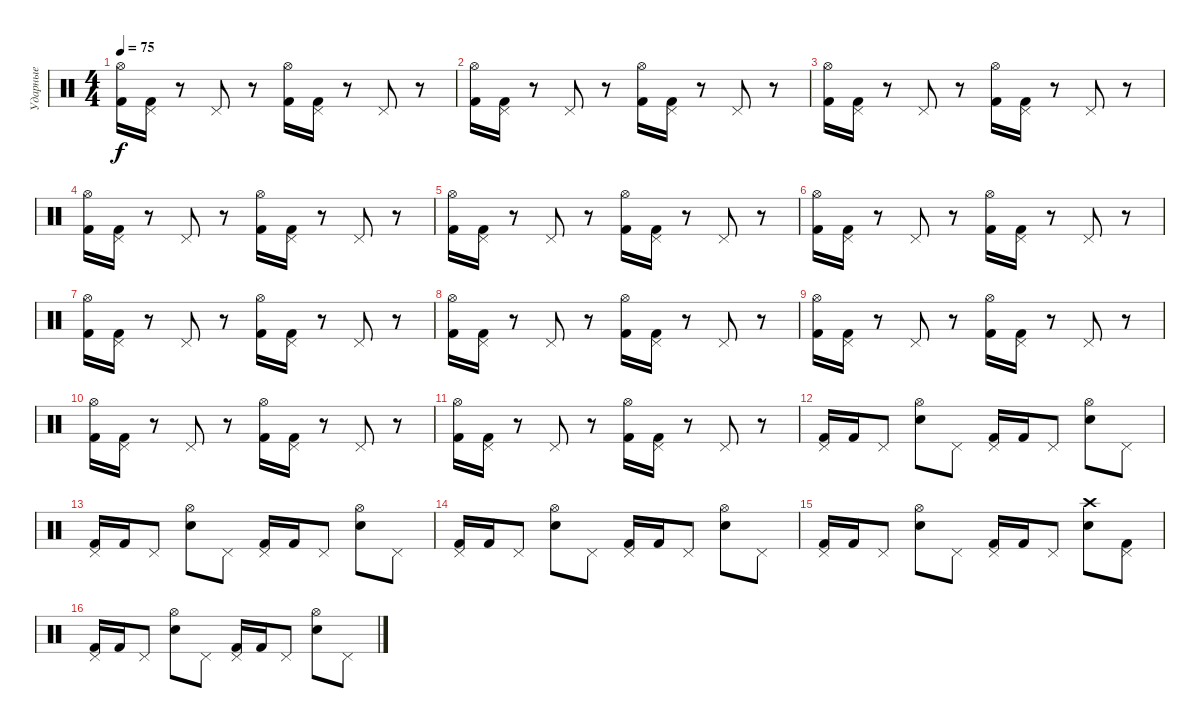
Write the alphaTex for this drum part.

\track ("Ударные" "Ударные") {instrument percussion}
\staff {score}
\articulation defaults
\ts (4 4)
\tempo 75
\clef neutral
\ks c
("Hi-Hat (open)" "Kick (hit) 2").16{dy f} ("Pedal Hi-Hat (hit)" "Kick (hit) 2").16 r.8 "Pedal Hi-Hat (hit)".8 r.8 ("Hi-Hat (open)" "Kick (hit) 2").16 ("Pedal Hi-Hat (hit)" "Kick (hit) 2").16 r.8 "Pedal Hi-Hat (hit)".8 r.8 |
("Hi-Hat (open)" "Kick (hit) 2").16 ("Pedal Hi-Hat (hit)" "Kick (hit) 2").16 r.8 "Pedal Hi-Hat (hit)".8 r.8 ("Hi-Hat (open)" "Kick (hit) 2").16 ("Pedal Hi-Hat (hit)" "Kick (hit) 2").16 r.8 "Pedal Hi-Hat (hit)".8 r.8 |
("Hi-Hat (open)" "Kick (hit) 2").16 ("Pedal Hi-Hat (hit)" "Kick (hit) 2").16 r.8 "Pedal Hi-Hat (hit)".8 r.8 ("Hi-Hat (open)" "Kick (hit) 2").16 ("Pedal Hi-Hat (hit)" "Kick (hit) 2").16 r.8 "Pedal Hi-Hat (hit)".8 r.8 |
("Hi-Hat (open)" "Kick (hit) 2").16 ("Pedal Hi-Hat (hit)" "Kick (hit) 2").16 r.8 "Pedal Hi-Hat (hit)".8 r.8 ("Hi-Hat (open)" "Kick (hit) 2").16 ("Pedal Hi-Hat (hit)" "Kick (hit) 2").16 r.8 "Pedal Hi-Hat (hit)".8 r.8 |
("Hi-Hat (open)" "Kick (hit) 2").16 ("Pedal Hi-Hat (hit)" "Kick (hit) 2").16 r.8 "Pedal Hi-Hat (hit)".8 r.8 ("Hi-Hat (open)" "Kick (hit) 2").16 ("Pedal Hi-Hat (hit)" "Kick (hit) 2").16 r.8 "Pedal Hi-Hat (hit)".8 r.8 |
("Hi-Hat (open)" "Kick (hit) 2").16 ("Pedal Hi-Hat (hit)" "Kick (hit) 2").16 r.8 "Pedal Hi-Hat (hit)".8 r.8 ("Hi-Hat (open)" "Kick (hit) 2").16 ("Pedal Hi-Hat (hit)" "Kick (hit) 2").16 r.8 "Pedal Hi-Hat (hit)".8 r.8 |
("Hi-Hat (open)" "Kick (hit) 2").16 ("Pedal Hi-Hat (hit)" "Kick (hit) 2").16 r.8 "Pedal Hi-Hat (hit)".8 r.8 ("Hi-Hat (open)" "Kick (hit) 2").16 ("Pedal Hi-Hat (hit)" "Kick (hit) 2").16 r.8 "Pedal Hi-Hat (hit)".8 r.8 |
("Hi-Hat (open)" "Kick (hit) 2").16 ("Pedal Hi-Hat (hit)" "Kick (hit) 2").16 r.8 "Pedal Hi-Hat (hit)".8 r.8 ("Hi-Hat (open)" "Kick (hit) 2").16 ("Pedal Hi-Hat (hit)" "Kick (hit) 2").16 r.8 "Pedal Hi-Hat (hit)".8 r.8 |
("Hi-Hat (open)" "Kick (hit) 2").16 ("Pedal Hi-Hat (hit)" "Kick (hit) 2").16 r.8 "Pedal Hi-Hat (hit)".8 r.8 ("Hi-Hat (open)" "Kick (hit) 2").16 ("Pedal Hi-Hat (hit)" "Kick (hit) 2").16 r.8 "Pedal Hi-Hat (hit)".8 r.8 |
("Hi-Hat (open)" "Kick (hit) 2").16 ("Pedal Hi-Hat (hit)" "Kick (hit) 2").16 r.8 "Pedal Hi-Hat (hit)".8 r.8 ("Hi-Hat (open)" "Kick (hit) 2").16 ("Pedal Hi-Hat (hit)" "Kick (hit) 2").16 r.8 "Pedal Hi-Hat (hit)".8 r.8 |
("Hi-Hat (open)" "Kick (hit) 2").16 ("Pedal Hi-Hat (hit)" "Kick (hit) 2").16 r.8 "Pedal Hi-Hat (hit)".8 r.8 ("Hi-Hat (open)" "Kick (hit) 2").16 ("Pedal Hi-Hat (hit)" "Kick (hit) 2").16 r.8 "Pedal Hi-Hat (hit)".8 r.8 |
("Pedal Hi-Hat (hit)" "Kick (hit) 2").16 "Kick (hit) 2".16 "Pedal Hi-Hat (hit)".8 ("Hi-Hat (open)" "Electric Snare (hit)").8 "Pedal Hi-Hat (hit)".8 ("Pedal Hi-Hat (hit)" "Kick (hit) 2").16 "Kick (hit) 2".16 "Pedal Hi-Hat (hit)".8 ("Hi-Hat (open)" "Electric Snare (hit)").8 "Pedal Hi-Hat (hit)".8 |
("Pedal Hi-Hat (hit)" "Kick (hit) 2").16 "Kick (hit) 2".16 "Pedal Hi-Hat (hit)".8 ("Hi-Hat (open)" "Electric Snare (hit)").8 "Pedal Hi-Hat (hit)".8 ("Pedal Hi-Hat (hit)" "Kick (hit) 2").16 "Kick (hit) 2".16 "Pedal Hi-Hat (hit)".8 ("Hi-Hat (open)" "Electric Snare (hit)").8 "Pedal Hi-Hat (hit)".8 |
("Pedal Hi-Hat (hit)" "Kick (hit) 2").16 "Kick (hit) 2".16 "Pedal Hi-Hat (hit)".8 ("Hi-Hat (open)" "Electric Snare (hit)").8 "Pedal Hi-Hat (hit)".8 ("Pedal Hi-Hat (hit)" "Kick (hit) 2").16 "Kick (hit) 2".16 "Pedal Hi-Hat (hit)".8 ("Hi-Hat (open)" "Electric Snare (hit)").8 "Pedal Hi-Hat (hit)".8 |
("Pedal Hi-Hat (hit)" "Kick (hit) 2").16 "Kick (hit) 2".16 "Pedal Hi-Hat (hit)".8 ("Hi-Hat (open)" "Electric Snare (hit)").8 "Pedal Hi-Hat (hit)".8 ("Pedal Hi-Hat (hit)" "Kick (hit) 2").16 "Kick (hit) 2".16 "Pedal Hi-Hat (hit)".8 ("Crash high (hit)" "Electric Snare (hit)").8 ("Kick (hit) 2" "Pedal Hi-Hat (hit)").8 |
("Pedal Hi-Hat (hit)" "Kick (hit) 2").16 "Kick (hit) 2".16 "Pedal Hi-Hat (hit)".8 ("Hi-Hat (open)" "Electric Snare (hit)").8 "Pedal Hi-Hat (hit)".8 ("Pedal Hi-Hat (hit)" "Kick (hit) 2").16 "Kick (hit) 2".16 "Pedal Hi-Hat (hit)".8 ("Hi-Hat (open)" "Electric Snare (hit)").8 "Pedal Hi-Hat (hit)".8
